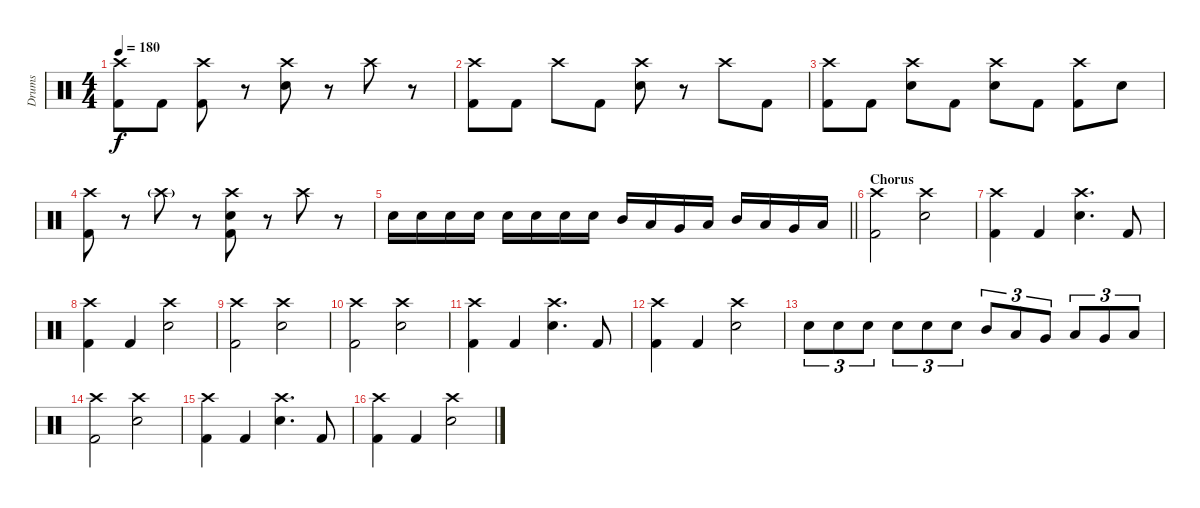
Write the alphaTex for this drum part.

\track ("Drums" "Drums") {instrument percussion}
\staff {score}
\articulation defaults
\ts (4 4)
\tempo 180
\clef neutral
\ks c
("Crash high (hit)" "Kick (hit) 2").8{dy f} "Kick (hit) 2".8 ("Crash high (hit)" "Kick (hit) 2").8 r.8 ("Crash high (hit)" "Electric Snare (hit)").8 r.8 "Crash high (hit)".8 r.8 |
("Crash high (hit)" "Kick (hit) 2").8 "Kick (hit) 2".8 "Crash high (hit)".8 "Kick (hit) 2".8 ("Crash high (hit)" "Electric Snare (hit)").8 r.8 "Crash high (hit)".8 "Kick (hit) 2".8 |
("Crash high (hit)" "Kick (hit) 2").8 "Kick (hit) 2".8 ("Electric Snare (hit)" "Crash high (hit)").8 "Kick (hit) 2".8 ("Electric Snare (hit)" "Crash high (hit)").8 "Kick (hit) 2".8 ("Crash high (hit)" "Kick (hit) 2").8 "Electric Snare (hit)".8 |
("Crash high (hit)" "Kick (hit) 2").8 r.8 "Crash high (hit)"{g}.8 r.8 ("Crash high (hit)" "Kick (hit) 2" "Electric Snare (hit)").8 r.8 "Crash high (hit)".8 r.8 |
\barLineRight lightlight "Electric Snare (hit)".16 "Electric Snare (hit)".16 "Electric Snare (hit)".16 "Electric Snare (hit)".16 "Electric Snare (hit)".16 "Electric Snare (hit)".16 "Electric Snare (hit)".16 "Electric Snare (hit)".16 "Mid Tom (hit)".16 "Low Tom (hit)".16 "Very Low Tom (hit)".16 "Low Floor Tom (hit)".16 "Mid Tom (hit)".16 "Low Tom (hit)".16 "Very Low Tom (hit)".16 "Low Floor Tom (hit)".16
|
\section ("" "Chorus")
("Kick (hit) 2" "Crash high (hit)").2 ("Crash high (hit)" "Electric Snare (hit)").2 |
("Crash high (hit)" "Kick (hit) 2").4 "Kick (hit) 2".4 ("Crash high (hit)" "Electric Snare (hit)").4{d} "Kick (hit) 2".8 |
("Crash high (hit)" "Kick (hit) 2").4 "Kick (hit) 2".4 ("Crash high (hit)" "Electric Snare (hit)").2 |
("Crash high (hit)" "Kick (hit) 2").2 ("Crash high (hit)" "Electric Snare (hit)").2 |
("Kick (hit) 2" "Crash high (hit)").2 ("Crash high (hit)" "Electric Snare (hit)").2 |
("Crash high (hit)" "Kick (hit) 2").4 "Kick (hit) 2".4 ("Crash high (hit)" "Electric Snare (hit)").4{d} "Kick (hit) 2".8 |
("Crash high (hit)" "Kick (hit) 2").4 "Kick (hit) 2".4 ("Crash high (hit)" "Electric Snare (hit)").2 |
"Electric Snare (hit)".8{tu (3 2)} "Electric Snare (hit)".8{tu (3 2)} "Electric Snare (hit)".8{tu (3 2)} "Electric Snare (hit)".8{tu (3 2)} "Electric Snare (hit)".8{tu (3 2)} "Electric Snare (hit)".8{tu (3 2)} "Mid Tom (hit)".8{tu (3 2)} "Low Tom (hit)".8{tu (3 2)} "Very Low Tom (hit)".8{tu (3 2)} "Low Tom (hit)".8{tu (3 2)} "Very Low Tom (hit)".8{tu (3 2)} "Low Floor Tom (hit)".8{tu (3 2)} |
("Kick (hit) 2" "Crash high (hit)").2 ("Crash high (hit)" "Electric Snare (hit)").2 |
("Crash high (hit)" "Kick (hit) 2").4 "Kick (hit) 2".4 ("Crash high (hit)" "Electric Snare (hit)").4{d} "Kick (hit) 2".8 |
("Crash high (hit)" "Kick (hit) 2").4 "Kick (hit) 2".4 ("Crash high (hit)" "Electric Snare (hit)").2
